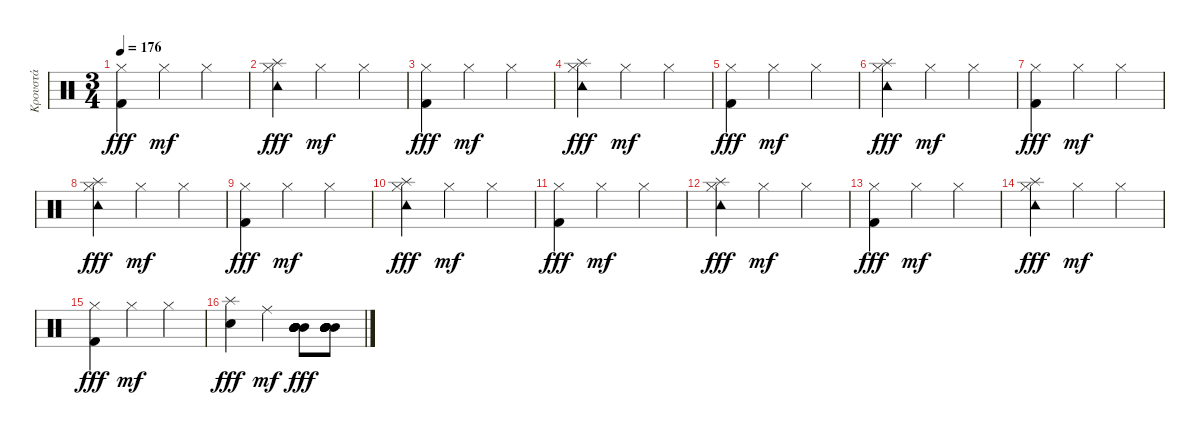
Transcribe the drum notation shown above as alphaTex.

\track ("Κρουστά" "Κρουστά") {instrument percussion}
\staff {score}
\articulation defaults
\ts (3 4)
\tempo 176
\clef neutral
\ks c
("Hi-Hat (closed)" "Kick (hit) 2").4{dy fff} "Hi-Hat (closed)".4{dy mf} "Hi-Hat (closed)".4 |
("Splash (hit)" "Hi-Hat (closed)" "Tambourine (hit)").4{dy fff} "Hi-Hat (closed)".4{dy mf} "Hi-Hat (closed)".4 |
("Hi-Hat (closed)" "Kick (hit) 2").4{dy fff} "Hi-Hat (closed)".4{dy mf} "Hi-Hat (closed)".4 |
("Splash (hit)" "Hi-Hat (closed)" "Tambourine (hit)").4{dy fff} "Hi-Hat (closed)".4{dy mf} "Hi-Hat (closed)".4 |
("Hi-Hat (closed)" "Kick (hit) 2").4{dy fff} "Hi-Hat (closed)".4{dy mf} "Hi-Hat (closed)".4 |
("Splash (hit)" "Hi-Hat (closed)" "Tambourine (hit)").4{dy fff} "Hi-Hat (closed)".4{dy mf} "Hi-Hat (closed)".4 |
("Hi-Hat (closed)" "Kick (hit) 2").4{dy fff} "Hi-Hat (closed)".4{dy mf} "Hi-Hat (closed)".4 |
("Splash (hit)" "Hi-Hat (closed)" "Tambourine (hit)").4{dy fff} "Hi-Hat (closed)".4{dy mf} "Hi-Hat (closed)".4 |
("Hi-Hat (closed)" "Kick (hit) 2").4{dy fff} "Hi-Hat (closed)".4{dy mf} "Hi-Hat (closed)".4 |
("Splash (hit)" "Hi-Hat (closed)" "Tambourine (hit)").4{dy fff} "Hi-Hat (closed)".4{dy mf} "Hi-Hat (closed)".4 |
("Hi-Hat (closed)" "Kick (hit) 2").4{dy fff} "Hi-Hat (closed)".4{dy mf} "Hi-Hat (closed)".4 |
("Splash (hit)" "Hi-Hat (closed)" "Tambourine (hit)").4{dy fff} "Hi-Hat (closed)".4{dy mf} "Hi-Hat (closed)".4 |
("Hi-Hat (closed)" "Kick (hit) 2").4{dy fff} "Hi-Hat (closed)".4{dy mf} "Hi-Hat (closed)".4 |
("Splash (hit)" "Hi-Hat (closed)" "Tambourine (hit)").4{dy fff} "Hi-Hat (closed)".4{dy mf} "Hi-Hat (closed)".4 |
("Hi-Hat (closed)" "Kick (hit) 2").4{dy fff} "Hi-Hat (closed)".4{dy mf} "Hi-Hat (closed)".4 |
("Splash (hit)" "Snare (hit) 2").4{dy fff} "Ride (middle)".4{dy mf} ("Mid Tom (hit)" "Mid Tom (hit)" "Mid Tom (hit)" "Mid Tom (hit)" "Mid Tom (hit)" "Mid Tom (hit)").8{dy fff} ("Mid Tom (hit)" "Mid Tom (hit)" "Mid Tom (hit)" "Mid Tom (hit)" "Mid Tom (hit)" "Mid Tom (hit)").8
